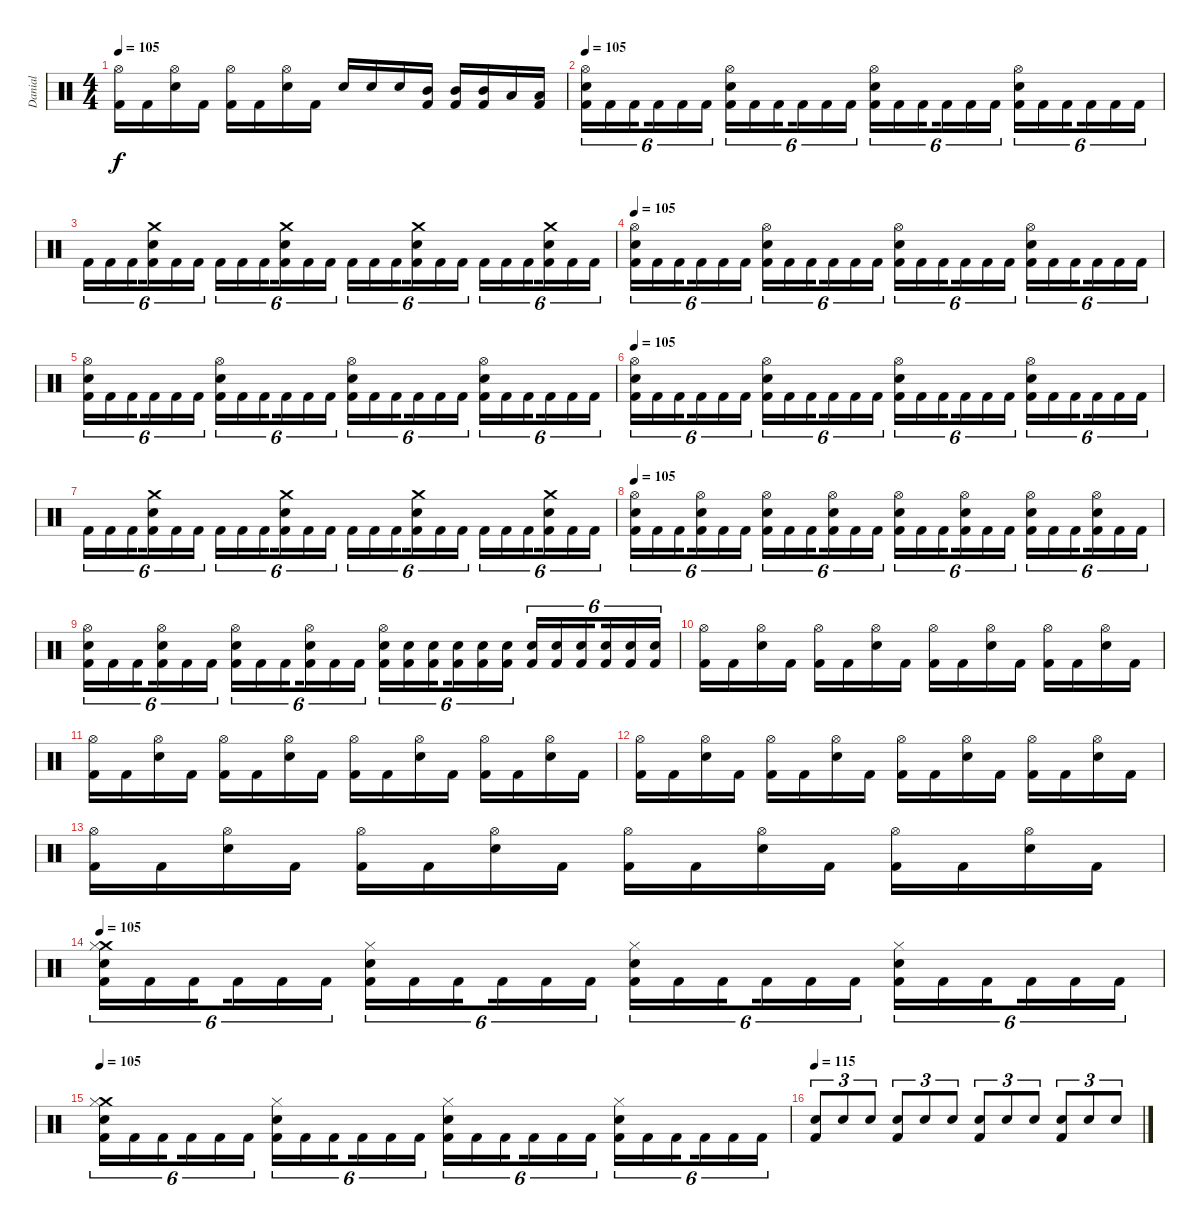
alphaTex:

\track ("Danial" "Danial") {instrument percussion}
\staff {score}
\articulation defaults
\ts (4 4)
\tempo 105
\clef neutral
\ks c
("Hi-Hat (open)" "Kick (hit) 2").16{dy f} "Kick (hit) 2".16 ("Hi-Hat (open)" "Snare (hit) 2").16 "Kick (hit) 2".16 ("Hi-Hat (open)" "Kick (hit) 2").16 "Kick (hit) 2".16 ("Hi-Hat (open)" "Snare (hit) 2").16 "Kick (hit) 2".16 "Snare (hit) 2".16 "Snare (hit) 2".16 "Snare (hit) 2".16 ("Mid Tom (hit)" "Kick (hit) 2").16 ("Mid Tom (hit)" "Kick (hit) 2").16 ("Mid Tom (hit)" "Kick (hit) 2").16 "Low Tom (hit)".16 ("Low Tom (hit)" "Kick (hit) 2").16 |
\tempo 105
("Hi-Hat (open)" "Snare (hit) 2" "Kick (hit) 2").16{tu (6 4)} "Kick (hit) 2".16{tu (6 4)} "Kick (hit) 2".16{tu (6 4) beam splitsecondary} "Kick (hit) 2".16{tu (6 4)} "Kick (hit) 2".16{tu (6 4)} "Kick (hit) 2".16{tu (6 4)} ("Hi-Hat (open)" "Snare (hit) 2" "Kick (hit) 2").16{tu (6 4)} "Kick (hit) 2".16{tu (6 4)} "Kick (hit) 2".16{tu (6 4) beam splitsecondary} "Kick (hit) 2".16{tu (6 4)} "Kick (hit) 2".16{tu (6 4)} "Kick (hit) 2".16{tu (6 4)} ("Hi-Hat (open)" "Snare (hit) 2" "Kick (hit) 2").16{tu (6 4)} "Kick (hit) 2".16{tu (6 4)} "Kick (hit) 2".16{tu (6 4) beam splitsecondary} "Kick (hit) 2".16{tu (6 4)} "Kick (hit) 2".16{tu (6 4)} "Kick (hit) 2".16{tu (6 4)} ("Hi-Hat (open)" "Snare (hit) 2" "Kick (hit) 2").16{tu (6 4)} "Kick (hit) 2".16{tu (6 4)} "Kick (hit) 2".16{tu (6 4) beam splitsecondary} "Kick (hit) 2".16{tu (6 4)} "Kick (hit) 2".16{tu (6 4)} "Kick (hit) 2".16{tu (6 4)} |
"Kick (hit) 2".16{tu (6 4)} "Kick (hit) 2".16{tu (6 4)} "Kick (hit) 2".16{tu (6 4) beam splitsecondary} ("Crash medium (hit)" "Snare (hit) 2" "Kick (hit) 2").16{tu (6 4)} "Kick (hit) 2".16{tu (6 4)} "Kick (hit) 2".16{tu (6 4)} "Kick (hit) 2".16{tu (6 4)} "Kick (hit) 2".16{tu (6 4)} "Kick (hit) 2".16{tu (6 4) beam splitsecondary} ("Crash medium (hit)" "Snare (hit) 2" "Kick (hit) 2").16{tu (6 4)} "Kick (hit) 2".16{tu (6 4)} "Kick (hit) 2".16{tu (6 4)} "Kick (hit) 2".16{tu (6 4)} "Kick (hit) 2".16{tu (6 4)} "Kick (hit) 2".16{tu (6 4) beam splitsecondary} ("Crash medium (hit)" "Snare (hit) 2" "Kick (hit) 2").16{tu (6 4)} "Kick (hit) 2".16{tu (6 4)} "Kick (hit) 2".16{tu (6 4)} "Kick (hit) 2".16{tu (6 4)} "Kick (hit) 2".16{tu (6 4)} "Kick (hit) 2".16{tu (6 4) beam splitsecondary} ("Snare (hit) 2" "Crash medium (hit)" "Kick (hit) 2").16{tu (6 4)} "Kick (hit) 2".16{tu (6 4)} "Kick (hit) 2".16{tu (6 4)} |
\tempo 105
("Hi-Hat (open)" "Snare (hit) 2" "Kick (hit) 2").16{tu (6 4)} "Kick (hit) 2".16{tu (6 4)} "Kick (hit) 2".16{tu (6 4) beam splitsecondary} "Kick (hit) 2".16{tu (6 4)} "Kick (hit) 2".16{tu (6 4)} "Kick (hit) 2".16{tu (6 4)} ("Hi-Hat (open)" "Snare (hit) 2" "Kick (hit) 2").16{tu (6 4)} "Kick (hit) 2".16{tu (6 4)} "Kick (hit) 2".16{tu (6 4) beam splitsecondary} "Kick (hit) 2".16{tu (6 4)} "Kick (hit) 2".16{tu (6 4)} "Kick (hit) 2".16{tu (6 4)} ("Hi-Hat (open)" "Snare (hit) 2" "Kick (hit) 2").16{tu (6 4)} "Kick (hit) 2".16{tu (6 4)} "Kick (hit) 2".16{tu (6 4) beam splitsecondary} "Kick (hit) 2".16{tu (6 4)} "Kick (hit) 2".16{tu (6 4)} "Kick (hit) 2".16{tu (6 4)} ("Hi-Hat (open)" "Snare (hit) 2" "Kick (hit) 2").16{tu (6 4)} "Kick (hit) 2".16{tu (6 4)} "Kick (hit) 2".16{tu (6 4) beam splitsecondary} "Kick (hit) 2".16{tu (6 4)} "Kick (hit) 2".16{tu (6 4)} "Kick (hit) 2".16{tu (6 4)} |
("Hi-Hat (open)" "Snare (hit) 2" "Kick (hit) 2").16{tu (6 4)} "Kick (hit) 2".16{tu (6 4)} "Kick (hit) 2".16{tu (6 4) beam splitsecondary} "Kick (hit) 2".16{tu (6 4)} "Kick (hit) 2".16{tu (6 4)} "Kick (hit) 2".16{tu (6 4)} ("Hi-Hat (open)" "Snare (hit) 2" "Kick (hit) 2").16{tu (6 4)} "Kick (hit) 2".16{tu (6 4)} "Kick (hit) 2".16{tu (6 4) beam splitsecondary} "Kick (hit) 2".16{tu (6 4)} "Kick (hit) 2".16{tu (6 4)} "Kick (hit) 2".16{tu (6 4)} ("Hi-Hat (open)" "Snare (hit) 2" "Kick (hit) 2").16{tu (6 4)} "Kick (hit) 2".16{tu (6 4)} "Kick (hit) 2".16{tu (6 4) beam splitsecondary} "Kick (hit) 2".16{tu (6 4)} "Kick (hit) 2".16{tu (6 4)} "Kick (hit) 2".16{tu (6 4)} ("Hi-Hat (open)" "Snare (hit) 2" "Kick (hit) 2").16{tu (6 4)} "Kick (hit) 2".16{tu (6 4)} "Kick (hit) 2".16{tu (6 4) beam splitsecondary} "Kick (hit) 2".16{tu (6 4)} "Kick (hit) 2".16{tu (6 4)} "Kick (hit) 2".16{tu (6 4)} |
\tempo 105
("Hi-Hat (open)" "Snare (hit) 2" "Kick (hit) 2").16{tu (6 4)} "Kick (hit) 2".16{tu (6 4)} "Kick (hit) 2".16{tu (6 4) beam splitsecondary} "Kick (hit) 2".16{tu (6 4)} "Kick (hit) 2".16{tu (6 4)} "Kick (hit) 2".16{tu (6 4)} ("Hi-Hat (open)" "Snare (hit) 2" "Kick (hit) 2").16{tu (6 4)} "Kick (hit) 2".16{tu (6 4)} "Kick (hit) 2".16{tu (6 4) beam splitsecondary} "Kick (hit) 2".16{tu (6 4)} "Kick (hit) 2".16{tu (6 4)} "Kick (hit) 2".16{tu (6 4)} ("Hi-Hat (open)" "Snare (hit) 2" "Kick (hit) 2").16{tu (6 4)} "Kick (hit) 2".16{tu (6 4)} "Kick (hit) 2".16{tu (6 4) beam splitsecondary} "Kick (hit) 2".16{tu (6 4)} "Kick (hit) 2".16{tu (6 4)} "Kick (hit) 2".16{tu (6 4)} ("Hi-Hat (open)" "Snare (hit) 2" "Kick (hit) 2").16{tu (6 4)} "Kick (hit) 2".16{tu (6 4)} "Kick (hit) 2".16{tu (6 4) beam splitsecondary} "Kick (hit) 2".16{tu (6 4)} "Kick (hit) 2".16{tu (6 4)} "Kick (hit) 2".16{tu (6 4)} |
"Kick (hit) 2".16{tu (6 4)} "Kick (hit) 2".16{tu (6 4)} "Kick (hit) 2".16{tu (6 4) beam splitsecondary} ("Crash medium (hit)" "Snare (hit) 2" "Kick (hit) 2").16{tu (6 4)} "Kick (hit) 2".16{tu (6 4)} "Kick (hit) 2".16{tu (6 4)} "Kick (hit) 2".16{tu (6 4)} "Kick (hit) 2".16{tu (6 4)} "Kick (hit) 2".16{tu (6 4) beam splitsecondary} ("Crash medium (hit)" "Snare (hit) 2" "Kick (hit) 2").16{tu (6 4)} "Kick (hit) 2".16{tu (6 4)} "Kick (hit) 2".16{tu (6 4)} "Kick (hit) 2".16{tu (6 4)} "Kick (hit) 2".16{tu (6 4)} "Kick (hit) 2".16{tu (6 4) beam splitsecondary} ("Crash medium (hit)" "Snare (hit) 2" "Kick (hit) 2").16{tu (6 4)} "Kick (hit) 2".16{tu (6 4)} "Kick (hit) 2".16{tu (6 4)} "Kick (hit) 2".16{tu (6 4)} "Kick (hit) 2".16{tu (6 4)} "Kick (hit) 2".16{tu (6 4) beam splitsecondary} ("Snare (hit) 2" "Crash medium (hit)" "Kick (hit) 2").16{tu (6 4)} "Kick (hit) 2".16{tu (6 4)} "Kick (hit) 2".16{tu (6 4)} |
\tempo 105
("Hi-Hat (open)" "Snare (hit) 2" "Kick (hit) 2").16{tu (6 4)} "Kick (hit) 2".16{tu (6 4)} "Kick (hit) 2".16{tu (6 4) beam splitsecondary} ("Hi-Hat (open)" "Snare (hit) 2" "Kick (hit) 2").16{tu (6 4)} "Kick (hit) 2".16{tu (6 4)} "Kick (hit) 2".16{tu (6 4)} ("Hi-Hat (open)" "Snare (hit) 2" "Kick (hit) 2").16{tu (6 4)} "Kick (hit) 2".16{tu (6 4)} "Kick (hit) 2".16{tu (6 4) beam splitsecondary} ("Hi-Hat (open)" "Snare (hit) 2" "Kick (hit) 2").16{tu (6 4)} "Kick (hit) 2".16{tu (6 4)} "Kick (hit) 2".16{tu (6 4)} ("Hi-Hat (open)" "Snare (hit) 2" "Kick (hit) 2").16{tu (6 4)} "Kick (hit) 2".16{tu (6 4)} "Kick (hit) 2".16{tu (6 4) beam splitsecondary} ("Hi-Hat (open)" "Snare (hit) 2" "Kick (hit) 2").16{tu (6 4)} "Kick (hit) 2".16{tu (6 4)} "Kick (hit) 2".16{tu (6 4)} ("Hi-Hat (open)" "Snare (hit) 2" "Kick (hit) 2").16{tu (6 4)} "Kick (hit) 2".16{tu (6 4)} "Kick (hit) 2".16{tu (6 4) beam splitsecondary} ("Hi-Hat (open)" "Snare (hit) 2" "Kick (hit) 2").16{tu (6 4)} "Kick (hit) 2".16{tu (6 4)} "Kick (hit) 2".16{tu (6 4)} |
("Hi-Hat (open)" "Snare (hit) 2" "Kick (hit) 2").16{tu (6 4)} "Kick (hit) 2".16{tu (6 4)} "Kick (hit) 2".16{tu (6 4) beam splitsecondary} ("Snare (hit) 2" "Hi-Hat (open)" "Kick (hit) 2").16{tu (6 4)} "Kick (hit) 2".16{tu (6 4)} "Kick (hit) 2".16{tu (6 4)} ("Hi-Hat (open)" "Snare (hit) 2" "Kick (hit) 2").16{tu (6 4)} "Kick (hit) 2".16{tu (6 4)} "Kick (hit) 2".16{tu (6 4) beam splitsecondary} ("Hi-Hat (open)" "Snare (hit) 2" "Kick (hit) 2").16{tu (6 4)} "Kick (hit) 2".16{tu (6 4)} "Kick (hit) 2".16{tu (6 4)} ("Hi-Hat (open)" "Snare (hit) 2" "Kick (hit) 2").16{tu (6 4)} ("Snare (hit) 2" "Kick (hit) 2").16{tu (6 4)} ("Snare (hit) 2" "Kick (hit) 2").16{tu (6 4) beam splitsecondary} ("Snare (hit) 2" "Kick (hit) 2").16{tu (6 4)} ("Snare (hit) 2" "Kick (hit) 2").16{tu (6 4)} ("Snare (hit) 2" "Kick (hit) 2").16{tu (6 4)} ("Snare (hit) 2" "Kick (hit) 2").16{tu (6 4)} ("Snare (hit) 2" "Kick (hit) 2").16{tu (6 4)} ("Snare (hit) 2" "Kick (hit) 2").16{tu (6 4) beam splitsecondary} ("Snare (hit) 2" "Kick (hit) 2").16{tu (6 4)} ("Snare (hit) 2" "Kick (hit) 2").16{tu (6 4)} ("Snare (hit) 2" "Kick (hit) 2").16{tu (6 4)} |
("Hi-Hat (open)" "Kick (hit) 2").16 "Kick (hit) 2".16 ("Hi-Hat (open)" "Snare (hit) 2").16 "Kick (hit) 2".16 ("Hi-Hat (open)" "Kick (hit) 2").16 "Kick (hit) 2".16 ("Hi-Hat (open)" "Snare (hit) 2").16 "Kick (hit) 2".16 ("Hi-Hat (open)" "Kick (hit) 2").16 "Kick (hit) 2".16 ("Hi-Hat (open)" "Snare (hit) 2").16 "Kick (hit) 2".16 ("Hi-Hat (open)" "Kick (hit) 2").16 "Kick (hit) 2".16 ("Hi-Hat (open)" "Snare (hit) 2").16 "Kick (hit) 2".16 |
("Hi-Hat (open)" "Kick (hit) 2").16 "Kick (hit) 2".16 ("Hi-Hat (open)" "Snare (hit) 2").16 "Kick (hit) 2".16 ("Hi-Hat (open)" "Kick (hit) 2").16 "Kick (hit) 2".16 ("Hi-Hat (open)" "Snare (hit) 2").16 "Kick (hit) 2".16 ("Hi-Hat (open)" "Kick (hit) 2").16 "Kick (hit) 2".16 ("Hi-Hat (open)" "Snare (hit) 2").16 "Kick (hit) 2".16 ("Hi-Hat (open)" "Kick (hit) 2").16 "Kick (hit) 2".16 ("Hi-Hat (open)" "Snare (hit) 2").16 "Kick (hit) 2".16 |
("Hi-Hat (open)" "Kick (hit) 2").16 "Kick (hit) 2".16 ("Hi-Hat (open)" "Snare (hit) 2").16 "Kick (hit) 2".16 ("Hi-Hat (open)" "Kick (hit) 2").16 "Kick (hit) 2".16 ("Hi-Hat (open)" "Snare (hit) 2").16 "Kick (hit) 2".16 ("Hi-Hat (open)" "Kick (hit) 2").16 "Kick (hit) 2".16 ("Hi-Hat (open)" "Snare (hit) 2").16 "Kick (hit) 2".16 ("Hi-Hat (open)" "Kick (hit) 2").16 "Kick (hit) 2".16 ("Hi-Hat (open)" "Snare (hit) 2").16 "Kick (hit) 2".16 |
("Hi-Hat (open)" "Kick (hit) 2").16 "Kick (hit) 2".16 ("Hi-Hat (open)" "Snare (hit) 2").16 "Kick (hit) 2".16 ("Hi-Hat (open)" "Kick (hit) 2").16 "Kick (hit) 2".16 ("Hi-Hat (open)" "Snare (hit) 2").16 "Kick (hit) 2".16 ("Hi-Hat (open)" "Kick (hit) 2").16 "Kick (hit) 2".16 ("Hi-Hat (open)" "Snare (hit) 2").16 "Kick (hit) 2".16 ("Hi-Hat (open)" "Kick (hit) 2").16 "Kick (hit) 2".16 ("Hi-Hat (open)" "Snare (hit) 2").16 "Kick (hit) 2".16 |
\tempo 105
("Crash medium (hit)" "Hi-Hat (closed)" "Snare (hit) 2" "Kick (hit) 2").16{tu (6 4)} "Kick (hit) 2".16{tu (6 4)} "Kick (hit) 2".16{tu (6 4) beam splitsecondary} "Kick (hit) 2".16{tu (6 4)} "Kick (hit) 2".16{tu (6 4)} "Kick (hit) 2".16{tu (6 4)} ("Hi-Hat (closed)" "Snare (hit) 2" "Kick (hit) 2").16{tu (6 4)} "Kick (hit) 2".16{tu (6 4)} "Kick (hit) 2".16{tu (6 4) beam splitsecondary} "Kick (hit) 2".16{tu (6 4)} "Kick (hit) 2".16{tu (6 4)} "Kick (hit) 2".16{tu (6 4)} ("Hi-Hat (closed)" "Snare (hit) 2" "Kick (hit) 2").16{tu (6 4)} "Kick (hit) 2".16{tu (6 4)} "Kick (hit) 2".16{tu (6 4) beam splitsecondary} "Kick (hit) 2".16{tu (6 4)} "Kick (hit) 2".16{tu (6 4)} "Kick (hit) 2".16{tu (6 4)} ("Hi-Hat (closed)" "Snare (hit) 2" "Kick (hit) 2").16{tu (6 4)} "Kick (hit) 2".16{tu (6 4)} "Kick (hit) 2".16{tu (6 4) beam splitsecondary} "Kick (hit) 2".16{tu (6 4)} "Kick (hit) 2".16{tu (6 4)} "Kick (hit) 2".16{tu (6 4)} |
\tempo 105
("Crash medium (hit)" "Hi-Hat (closed)" "Snare (hit) 2" "Kick (hit) 2").16{tu (6 4)} "Kick (hit) 2".16{tu (6 4)} "Kick (hit) 2".16{tu (6 4) beam splitsecondary} "Kick (hit) 2".16{tu (6 4)} "Kick (hit) 2".16{tu (6 4)} "Kick (hit) 2".16{tu (6 4)} ("Hi-Hat (closed)" "Snare (hit) 2" "Kick (hit) 2").16{tu (6 4)} "Kick (hit) 2".16{tu (6 4)} "Kick (hit) 2".16{tu (6 4) beam splitsecondary} "Kick (hit) 2".16{tu (6 4)} "Kick (hit) 2".16{tu (6 4)} "Kick (hit) 2".16{tu (6 4)} ("Hi-Hat (closed)" "Snare (hit) 2" "Kick (hit) 2").16{tu (6 4)} "Kick (hit) 2".16{tu (6 4)} "Kick (hit) 2".16{tu (6 4) beam splitsecondary} "Kick (hit) 2".16{tu (6 4)} "Kick (hit) 2".16{tu (6 4)} "Kick (hit) 2".16{tu (6 4)} ("Hi-Hat (closed)" "Snare (hit) 2" "Kick (hit) 2").16{tu (6 4)} "Kick (hit) 2".16{tu (6 4)} "Kick (hit) 2".16{tu (6 4) beam splitsecondary} "Kick (hit) 2".16{tu (6 4)} "Kick (hit) 2".16{tu (6 4)} "Kick (hit) 2".16{tu (6 4)} |
\tempo 115
("Kick (hit) 2" "Snare (hit) 2").8{tu (3 2)} "Snare (hit) 2".8{tu (3 2)} "Snare (hit) 2".8{tu (3 2)} ("Kick (hit) 2" "Snare (hit) 2").8{tu (3 2)} "Snare (hit) 2".8{tu (3 2)} "Snare (hit) 2".8{tu (3 2)} ("Kick (hit) 2" "Snare (hit) 2").8{tu (3 2)} "Snare (hit) 2".8{tu (3 2)} "Snare (hit) 2".8{tu (3 2)} ("Kick (hit) 2" "Snare (hit) 2").8{tu (3 2)} "Snare (hit) 2".8{tu (3 2)} "Snare (hit) 2".8{tu (3 2)}
